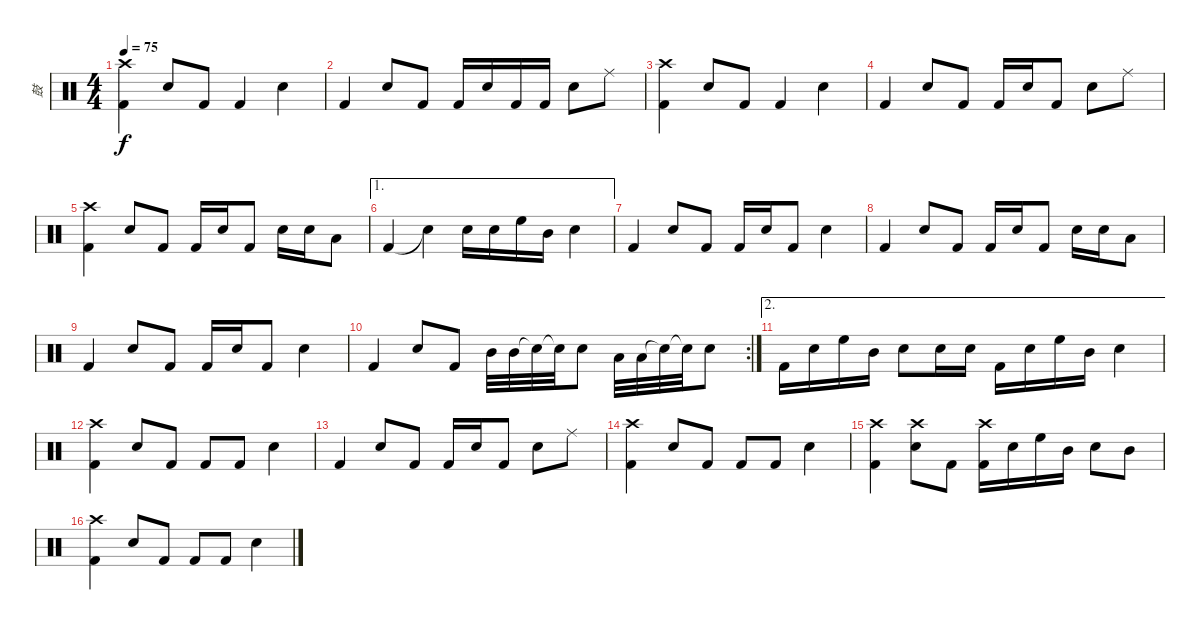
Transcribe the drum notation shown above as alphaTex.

\track ("鼓" "鼓") {instrument percussion}
\staff {score}
\articulation defaults
\ts (4 4)
\tempo 75
\clef neutral
\ks c
("Crash high (hit)" "Kick (hit) 2").4{dy f} "Snare (hit) 2".8 "Kick (hit) 2".8 "Kick (hit) 2".4 "Snare (hit) 2".4 |
"Kick (hit) 2".4 "Snare (hit) 2".8 "Kick (hit) 2".8 "Kick (hit) 2".16 "Snare (hit) 2".16 "Kick (hit) 2".16 "Kick (hit) 2".16 "Snare (hit) 2".8 "Ride (middle)".8 |
("Crash high (hit)" "Kick (hit) 2").4 "Snare (hit) 2".8 "Kick (hit) 2".8 "Kick (hit) 2".4 "Snare (hit) 2".4 |
"Kick (hit) 2".4 "Snare (hit) 2".8 "Kick (hit) 2".8 "Kick (hit) 2".16 "Snare (hit) 2".16 "Kick (hit) 2".8 "Snare (hit) 2".8 "Ride (middle)".8 |
("Crash high (hit)" "Kick (hit) 2").4 "Snare (hit) 2".8 "Kick (hit) 2".8 "Kick (hit) 2".16 "Snare (hit) 2".16 "Kick (hit) 2".8 "Snare (hit) 2".16 "Snare (hit) 2".16 "Low Floor Tom (hit)".8 |
\ae 1 "Kick (hit) 2".4 "Snare (hit)"{t}.4 "Snare (hit) 2".16 "Snare (hit) 2".16 "High Floor Tom (hit)".16 "Mid Tom (hit)".16 "Snare (hit) 2".4
|
"Kick (hit) 2".4 "Snare (hit) 2".8 "Kick (hit) 2".8 "Kick (hit) 2".16 "Snare (hit) 2".16 "Kick (hit) 2".8 "Snare (hit) 2".4 |
"Kick (hit) 2".4 "Snare (hit) 2".8 "Kick (hit) 2".8 "Kick (hit) 2".16 "Snare (hit) 2".16 "Kick (hit) 2".8 "Snare (hit) 2".16 "Snare (hit) 2".16 "Low Floor Tom (hit)".8 |
"Kick (hit) 2".4 "Snare (hit) 2".8 "Kick (hit) 2".8 "Kick (hit) 2".16 "Snare (hit) 2".16 "Kick (hit) 2".8 "Snare (hit) 2".4 |
\rc 2 "Kick (hit) 2".4 "Snare (hit) 2".8 "Kick (hit) 2".8 "Mid Tom (hit)".32 "Mid Tom (hit)".32 "Snare (hit)"{t}.32 "Snare (hit)"{t}.32 "Snare (hit) 2".8 "Low Tom (hit)".32 "Low Tom (hit)".32 "Snare (hit)"{t}.32 "Snare (hit)"{t}.32 "Snare (hit) 2".8
|
\ae 2 "Kick (hit) 2".16 "Snare (hit) 2".16 "High Floor Tom (hit)".16 "Mid Tom (hit)".16 "Snare (hit) 2".8 "Snare (hit) 2".16 "Snare (hit) 2".16 "Kick (hit) 2".16 "Snare (hit) 2".16 "High Floor Tom (hit)".16 "Mid Tom (hit)".16 "Snare (hit) 2".4
|
("Crash high (hit)" "Kick (hit) 2").4 "Snare (hit) 2".8 "Kick (hit) 2".8 "Kick (hit) 2".8 "Kick (hit) 2".8 "Snare (hit) 2".4 |
"Kick (hit) 2".4 "Snare (hit) 2".8 "Kick (hit) 2".8 "Kick (hit) 2".16 "Snare (hit) 2".16 "Kick (hit) 2".8 "Snare (hit) 2".8 "Ride (middle)".8 |
("Crash high (hit)" "Kick (hit) 2").4 "Snare (hit) 2".8 "Kick (hit) 2".8 "Kick (hit) 2".8 "Kick (hit) 2".8 "Snare (hit) 2".4 |
("Crash high (hit)" "Kick (hit) 2").4 ("Crash high (hit)" "Snare (hit) 2").8 "Kick (hit) 2".8 ("Crash high (hit)" "Kick (hit) 2").16 "Snare (hit) 2".16 "High Floor Tom (hit)".16 "Mid Tom (hit)".16 "Snare (hit) 2".8 "Mid Tom (hit)".8 |
("Crash high (hit)" "Kick (hit) 2").4 "Snare (hit) 2".8 "Kick (hit) 2".8 "Kick (hit) 2".8 "Kick (hit) 2".8 "Snare (hit) 2".4
